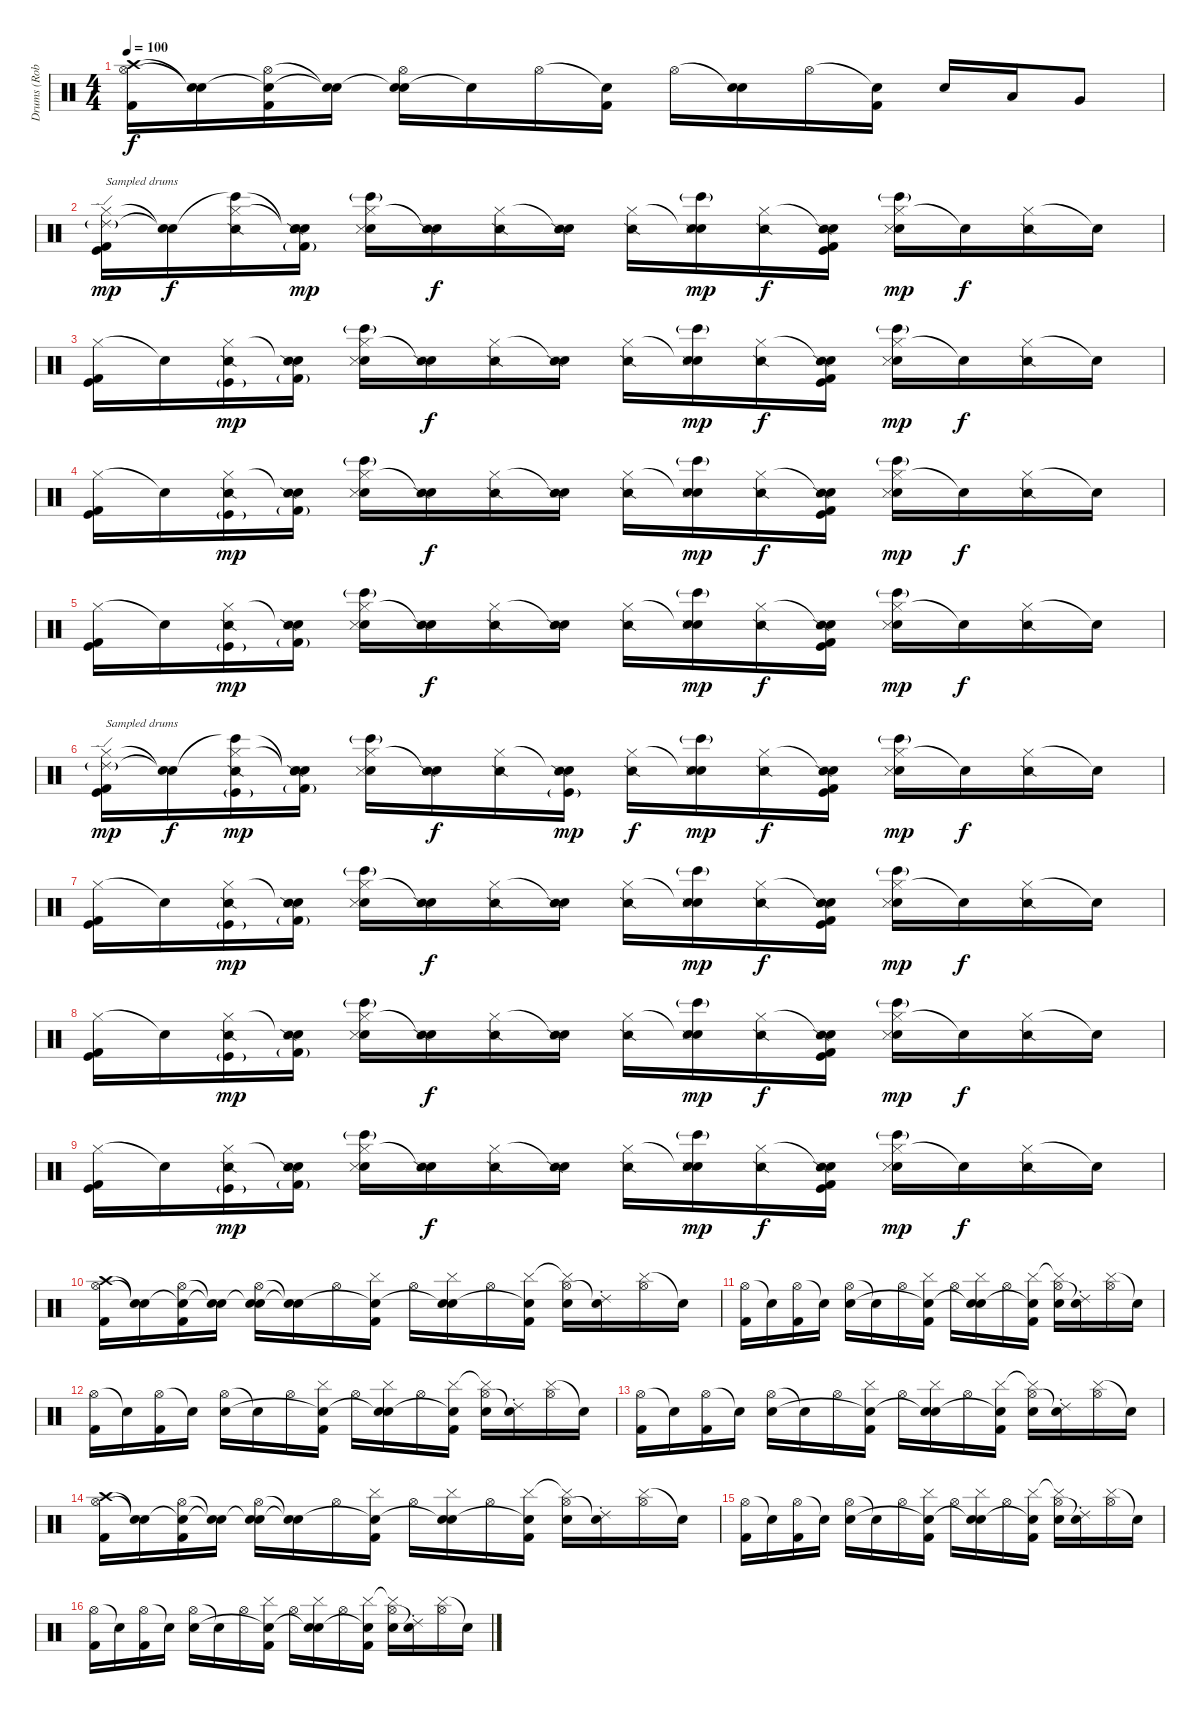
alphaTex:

\track ("Drums (Rob Bourdon)" "Drums (Rob") {instrument percussion}
\staff {score}
\articulation defaults
\ts (4 4)
\tempo 100
\clef neutral
\ks c
("Crash high (hit)" "Hi-Hat (open)" "Kick (hit) 2").16{dy f} ("Snare (hit)"{t} "Snare (hit)"{t}).16 ("Snare (hit)"{t} "Hi-Hat (open)" "Kick (hit) 2").16 ("Snare (hit)"{t} "Snare (hit)"{t}).16 ("Snare (hit)"{t} "Hi-Hat (open)" "Electric Snare (hit)").16 "Snare (hit)"{t}.16 "Hi-Hat (open)".16 ("Snare (hit)"{t} "Kick (hit) 2").16 "Hi-Hat (open)".16 ("Snare (hit)"{t} "Electric Snare (hit)").16 "Hi-Hat (open)".16 ("Snare (hit)"{t} "Kick (hit) 2").16 "Electric Snare (hit)".16 "Low Tom (hit)".16 "Very Low Tom (hit)".8 |
("Ride (edge) 2"{g} "Hi-Hat (closed)" "Kick (hit) 2" "Kick (hit)").16{txt "Sampled drums" dy mp volume 10} ("Snare (hit)"{t} "Snare (hit)"{t}).16{dy f} ("Bongo High (hit)"{t} "Hi-Hat (closed)" "Snare (side stick) 2").16 ("Snare (hit)"{t} "Snare (hit)"{t} "Snare (side stick) 2" "Kick (hit) 2"{g}).16{dy mp} ("Hi-Hat (closed)" "Bongo High (hit)"{g} "Electric Snare (hit)" "Snare (side stick) 3").16 ("Snare (hit)"{t} "Snare (side stick) 2").16{dy f} ("Hi-Hat (closed)" "Snare (side stick) 2").16 ("Snare (hit)"{t} "Snare (side stick) 2").16 ("Hi-Hat (closed)" "Snare (side stick) 2").16 ("Snare (hit)"{t} "Bongo High (hit)"{g} "Electric Snare (hit)" "Snare (side stick) 3").16{dy mp} ("Hi-Hat (closed)" "Snare (side stick) 2").16{dy f} ("Snare (hit)"{t} "Snare (side stick) 2" "Kick (hit) 2" "Kick (hit)").16 ("Hi-Hat (closed)" "Bongo High (hit)"{g} "Electric Snare (hit)" "Snare (side stick) 3").16{dy mp} "Snare (hit)"{t}.16{dy f} ("Hi-Hat (closed)" "Snare (side stick) 2").16 "Snare (hit)"{t}.16 |
("Hi-Hat (closed)" "Kick (hit) 2" "Kick (hit)").16{volume 10} "Snare (hit)"{t}.16 ("Hi-Hat (closed)" "Snare (side stick) 2" "Kick (hit)"{g}).16{dy mp} ("Snare (hit)"{t} "Snare (side stick) 2" "Kick (hit) 2"{g}).16 ("Hi-Hat (closed)" "Bongo High (hit)"{g} "Electric Snare (hit)" "Snare (side stick) 3").16 ("Snare (hit)"{t} "Snare (side stick) 2").16{dy f} ("Hi-Hat (closed)" "Snare (side stick) 2").16 ("Snare (hit)"{t} "Snare (side stick) 2").16 ("Hi-Hat (closed)" "Snare (side stick) 2").16 ("Snare (hit)"{t} "Bongo High (hit)"{g} "Electric Snare (hit)" "Snare (side stick) 3").16{dy mp} ("Hi-Hat (closed)" "Snare (side stick) 2").16{dy f} ("Snare (hit)"{t} "Snare (side stick) 2" "Kick (hit) 2" "Kick (hit)").16 ("Hi-Hat (closed)" "Bongo High (hit)"{g} "Electric Snare (hit)" "Snare (side stick) 3").16{dy mp} "Snare (hit)"{t}.16{dy f} ("Hi-Hat (closed)" "Snare (side stick) 2").16 "Snare (hit)"{t}.16 |
("Hi-Hat (closed)" "Kick (hit) 2" "Kick (hit)").16{volume 10} "Snare (hit)"{t}.16 ("Hi-Hat (closed)" "Snare (side stick) 2" "Kick (hit)"{g}).16{dy mp} ("Snare (hit)"{t} "Snare (side stick) 2" "Kick (hit) 2"{g}).16 ("Hi-Hat (closed)" "Bongo High (hit)"{g} "Electric Snare (hit)" "Snare (side stick) 3").16 ("Snare (hit)"{t} "Snare (side stick) 2").16{dy f} ("Hi-Hat (closed)" "Snare (side stick) 2").16 ("Snare (hit)"{t} "Snare (side stick) 2").16 ("Hi-Hat (closed)" "Snare (side stick) 2").16 ("Snare (hit)"{t} "Bongo High (hit)"{g} "Electric Snare (hit)" "Snare (side stick) 3").16{dy mp} ("Hi-Hat (closed)" "Snare (side stick) 2").16{dy f} ("Snare (hit)"{t} "Snare (side stick) 2" "Kick (hit) 2" "Kick (hit)").16 ("Hi-Hat (closed)" "Bongo High (hit)"{g} "Electric Snare (hit)" "Snare (side stick) 3").16{dy mp} "Snare (hit)"{t}.16{dy f} ("Hi-Hat (closed)" "Snare (side stick) 2").16 "Snare (hit)"{t}.16 |
("Hi-Hat (closed)" "Kick (hit) 2" "Kick (hit)").16{volume 10} "Snare (hit)"{t}.16 ("Hi-Hat (closed)" "Snare (side stick) 2" "Kick (hit)"{g}).16{dy mp} ("Snare (hit)"{t} "Snare (side stick) 2" "Kick (hit) 2"{g}).16 ("Hi-Hat (closed)" "Bongo High (hit)"{g} "Electric Snare (hit)" "Snare (side stick) 3").16 ("Snare (hit)"{t} "Snare (side stick) 2").16{dy f} ("Hi-Hat (closed)" "Snare (side stick) 2").16 ("Snare (hit)"{t} "Snare (side stick) 2").16 ("Hi-Hat (closed)" "Snare (side stick) 2").16 ("Snare (hit)"{t} "Bongo High (hit)"{g} "Electric Snare (hit)" "Snare (side stick) 3").16{dy mp} ("Hi-Hat (closed)" "Snare (side stick) 2").16{dy f} ("Snare (hit)"{t} "Snare (side stick) 2" "Kick (hit) 2" "Kick (hit)").16 ("Hi-Hat (closed)" "Bongo High (hit)"{g} "Electric Snare (hit)" "Snare (side stick) 3").16{dy mp} "Snare (hit)"{t}.16{dy f} ("Hi-Hat (closed)" "Snare (side stick) 2").16 "Snare (hit)"{t}.16 |
("Ride (edge) 2"{g} "Hi-Hat (closed)" "Kick (hit) 2" "Kick (hit)").16{txt "Sampled drums" dy mp volume 10} ("Snare (hit)"{t} "Snare (hit)"{t}).16{dy f} ("Bongo High (hit)"{t} "Hi-Hat (closed)" "Snare (side stick) 2" "Kick (hit)"{g}).16{dy mp} ("Snare (hit)"{t} "Snare (hit)"{t} "Snare (side stick) 2" "Kick (hit) 2"{g}).16 ("Hi-Hat (closed)" "Bongo High (hit)"{g} "Electric Snare (hit)" "Snare (side stick) 3").16 ("Snare (hit)"{t} "Snare (side stick) 2").16{dy f} ("Hi-Hat (closed)" "Snare (side stick) 2").16 ("Snare (hit)"{t} "Snare (side stick) 2" "Kick (hit)"{g}).16{dy mp} ("Hi-Hat (closed)" "Snare (side stick) 2").16{dy f} ("Snare (hit)"{t} "Bongo High (hit)"{g} "Electric Snare (hit)" "Snare (side stick) 3").16{dy mp} ("Hi-Hat (closed)" "Snare (side stick) 2").16{dy f} ("Snare (hit)"{t} "Snare (side stick) 2" "Kick (hit) 2" "Kick (hit)").16 ("Hi-Hat (closed)" "Bongo High (hit)"{g} "Electric Snare (hit)" "Snare (side stick) 3").16{dy mp} "Snare (hit)"{t}.16{dy f} ("Hi-Hat (closed)" "Snare (side stick) 2").16 "Snare (hit)"{t}.16 |
("Hi-Hat (closed)" "Kick (hit) 2" "Kick (hit)").16{volume 10} "Snare (hit)"{t}.16 ("Hi-Hat (closed)" "Snare (side stick) 2" "Kick (hit)"{g}).16{dy mp} ("Snare (hit)"{t} "Snare (side stick) 2" "Kick (hit) 2"{g}).16 ("Hi-Hat (closed)" "Bongo High (hit)"{g} "Electric Snare (hit)" "Snare (side stick) 3").16 ("Snare (hit)"{t} "Snare (side stick) 2").16{dy f} ("Hi-Hat (closed)" "Snare (side stick) 2").16 ("Snare (hit)"{t} "Snare (side stick) 2").16 ("Hi-Hat (closed)" "Snare (side stick) 2").16 ("Snare (hit)"{t} "Bongo High (hit)"{g} "Electric Snare (hit)" "Snare (side stick) 3").16{dy mp} ("Hi-Hat (closed)" "Snare (side stick) 2").16{dy f} ("Snare (hit)"{t} "Snare (side stick) 2" "Kick (hit) 2" "Kick (hit)").16 ("Hi-Hat (closed)" "Bongo High (hit)"{g} "Electric Snare (hit)" "Snare (side stick) 3").16{dy mp} "Snare (hit)"{t}.16{dy f} ("Hi-Hat (closed)" "Snare (side stick) 2").16 "Snare (hit)"{t}.16 |
("Hi-Hat (closed)" "Kick (hit) 2" "Kick (hit)").16{volume 10} "Snare (hit)"{t}.16 ("Hi-Hat (closed)" "Snare (side stick) 2" "Kick (hit)"{g}).16{dy mp} ("Snare (hit)"{t} "Snare (side stick) 2" "Kick (hit) 2"{g}).16 ("Hi-Hat (closed)" "Bongo High (hit)"{g} "Electric Snare (hit)" "Snare (side stick) 3").16 ("Snare (hit)"{t} "Snare (side stick) 2").16{dy f} ("Hi-Hat (closed)" "Snare (side stick) 2").16 ("Snare (hit)"{t} "Snare (side stick) 2").16 ("Hi-Hat (closed)" "Snare (side stick) 2").16 ("Snare (hit)"{t} "Bongo High (hit)"{g} "Electric Snare (hit)" "Snare (side stick) 3").16{dy mp} ("Hi-Hat (closed)" "Snare (side stick) 2").16{dy f} ("Snare (hit)"{t} "Snare (side stick) 2" "Kick (hit) 2" "Kick (hit)").16 ("Hi-Hat (closed)" "Bongo High (hit)"{g} "Electric Snare (hit)" "Snare (side stick) 3").16{dy mp} "Snare (hit)"{t}.16{dy f} ("Hi-Hat (closed)" "Snare (side stick) 2").16 "Snare (hit)"{t}.16 |
("Hi-Hat (closed)" "Kick (hit) 2" "Kick (hit)").16{volume 10} "Snare (hit)"{t}.16 ("Hi-Hat (closed)" "Snare (side stick) 2" "Kick (hit)"{g}).16{dy mp} ("Snare (hit)"{t} "Snare (side stick) 2" "Kick (hit) 2"{g}).16 ("Hi-Hat (closed)" "Bongo High (hit)"{g} "Electric Snare (hit)" "Snare (side stick) 3").16 ("Snare (hit)"{t} "Snare (side stick) 2").16{dy f} ("Hi-Hat (closed)" "Snare (side stick) 2").16 ("Snare (hit)"{t} "Snare (side stick) 2").16 ("Hi-Hat (closed)" "Snare (side stick) 2").16 ("Snare (hit)"{t} "Bongo High (hit)"{g} "Electric Snare (hit)" "Snare (side stick) 3").16{dy mp} ("Hi-Hat (closed)" "Snare (side stick) 2").16{dy f} ("Snare (hit)"{t} "Snare (side stick) 2" "Kick (hit) 2" "Kick (hit)").16 ("Hi-Hat (closed)" "Bongo High (hit)"{g} "Electric Snare (hit)" "Snare (side stick) 3").16{dy mp} "Snare (hit)"{t}.16{dy f} ("Hi-Hat (closed)" "Snare (side stick) 2").16 "Snare (hit)"{t}.16 |
("Crash high (hit)" "Hi-Hat (open)" "Kick (hit) 2").16{volume 14} ("Snare (hit)"{t} "Snare (hit)"{t}).16 ("Snare (hit)"{t} "Hi-Hat (open)" "Kick (hit) 2").16 ("Snare (hit)"{t} "Snare (hit)"{t}).16 ("Snare (hit)"{t} "Hi-Hat (open)" "Electric Snare (hit)").16 ("Snare (hit)"{t} "Snare (hit)"{t}).16 "Hi-Hat (open)".16 ("Cymbal (hit)" "Snare (hit)"{t} "Kick (hit) 2").16 "Hi-Hat (open)".16 ("Cymbal (hit)" "Snare (hit)"{t} "Electric Snare (hit)").16 "Hi-Hat (open)".16 ("Cymbal (hit)" "Snare (hit)"{t} "Kick (hit) 2").16 ("Cymbal (hit)"{t} "Hi-Hat (open)" "Electric Snare (hit)").16 ("Ride (choke) 2" "Snare (hit)"{t}).16 ("Cymbal (hit)" "Hi-Hat (open)").16 "Snare (hit)"{t}.16 |
("Hi-Hat (open)" "Kick (hit) 2").16 "Snare (hit)"{t}.16 ("Hi-Hat (open)" "Kick (hit) 2").16 "Snare (hit)"{t}.16 ("Hi-Hat (open)" "Electric Snare (hit)").16 "Snare (hit)"{t}.16 "Hi-Hat (open)".16 ("Cymbal (hit)" "Snare (hit)"{t} "Kick (hit) 2").16 "Hi-Hat (open)".16 ("Cymbal (hit)" "Snare (hit)"{t} "Electric Snare (hit)").16 "Hi-Hat (open)".16 ("Cymbal (hit)" "Snare (hit)"{t} "Kick (hit) 2").16 ("Cymbal (hit)"{t} "Hi-Hat (open)" "Electric Snare (hit)").16 ("Ride (choke) 2" "Snare (hit)"{t}).16 ("Cymbal (hit)" "Hi-Hat (open)").16 "Snare (hit)"{t}.16 |
("Hi-Hat (open)" "Kick (hit) 2").16{volume 14} "Snare (hit)"{t}.16 ("Hi-Hat (open)" "Kick (hit) 2").16 "Snare (hit)"{t}.16 ("Hi-Hat (open)" "Electric Snare (hit)").16 "Snare (hit)"{t}.16 "Hi-Hat (open)".16 ("Cymbal (hit)" "Snare (hit)"{t} "Kick (hit) 2").16 "Hi-Hat (open)".16 ("Cymbal (hit)" "Snare (hit)"{t} "Electric Snare (hit)").16 "Hi-Hat (open)".16 ("Cymbal (hit)" "Snare (hit)"{t} "Kick (hit) 2").16 ("Cymbal (hit)"{t} "Hi-Hat (open)" "Electric Snare (hit)").16 ("Ride (choke) 2" "Snare (hit)"{t}).16 ("Cymbal (hit)" "Hi-Hat (open)").16 "Snare (hit)"{t}.16 |
("Hi-Hat (open)" "Kick (hit) 2").16 "Snare (hit)"{t}.16 ("Hi-Hat (open)" "Kick (hit) 2").16 "Snare (hit)"{t}.16 ("Hi-Hat (open)" "Electric Snare (hit)").16 "Snare (hit)"{t}.16 "Hi-Hat (open)".16 ("Cymbal (hit)" "Snare (hit)"{t} "Kick (hit) 2").16 "Hi-Hat (open)".16 ("Cymbal (hit)" "Snare (hit)"{t} "Electric Snare (hit)").16 "Hi-Hat (open)".16 ("Cymbal (hit)" "Snare (hit)"{t} "Kick (hit) 2").16 ("Cymbal (hit)"{t} "Hi-Hat (open)" "Electric Snare (hit)").16 ("Ride (choke) 2" "Snare (hit)"{t}).16 ("Cymbal (hit)" "Hi-Hat (open)").16 "Snare (hit)"{t}.16 |
("Crash high (hit)" "Hi-Hat (open)" "Kick (hit) 2").16{volume 14} ("Snare (hit)"{t} "Snare (hit)"{t}).16 ("Snare (hit)"{t} "Hi-Hat (open)" "Kick (hit) 2").16 ("Snare (hit)"{t} "Snare (hit)"{t}).16 ("Snare (hit)"{t} "Hi-Hat (open)" "Electric Snare (hit)").16 ("Snare (hit)"{t} "Snare (hit)"{t}).16 "Hi-Hat (open)".16 ("Cymbal (hit)" "Snare (hit)"{t} "Kick (hit) 2").16 "Hi-Hat (open)".16 ("Cymbal (hit)" "Snare (hit)"{t} "Electric Snare (hit)").16 "Hi-Hat (open)".16 ("Cymbal (hit)" "Snare (hit)"{t} "Kick (hit) 2").16 ("Cymbal (hit)"{t} "Hi-Hat (open)" "Electric Snare (hit)").16 ("Ride (choke) 2" "Snare (hit)"{t}).16 ("Cymbal (hit)" "Hi-Hat (open)").16 "Snare (hit)"{t}.16 |
("Hi-Hat (open)" "Kick (hit) 2").16 "Snare (hit)"{t}.16 ("Hi-Hat (open)" "Kick (hit) 2").16 "Snare (hit)"{t}.16 ("Hi-Hat (open)" "Electric Snare (hit)").16 "Snare (hit)"{t}.16 "Hi-Hat (open)".16 ("Cymbal (hit)" "Snare (hit)"{t} "Kick (hit) 2").16 "Hi-Hat (open)".16 ("Cymbal (hit)" "Snare (hit)"{t} "Electric Snare (hit)").16 "Hi-Hat (open)".16 ("Cymbal (hit)" "Snare (hit)"{t} "Kick (hit) 2").16 ("Cymbal (hit)"{t} "Hi-Hat (open)" "Electric Snare (hit)").16 ("Ride (choke) 2" "Snare (hit)"{t}).16 ("Cymbal (hit)" "Hi-Hat (open)").16 "Snare (hit)"{t}.16 |
("Hi-Hat (open)" "Kick (hit) 2").16{volume 14} "Snare (hit)"{t}.16 ("Hi-Hat (open)" "Kick (hit) 2").16 "Snare (hit)"{t}.16 ("Hi-Hat (open)" "Electric Snare (hit)").16 "Snare (hit)"{t}.16 "Hi-Hat (open)".16 ("Cymbal (hit)" "Snare (hit)"{t} "Kick (hit) 2").16 "Hi-Hat (open)".16 ("Cymbal (hit)" "Snare (hit)"{t} "Electric Snare (hit)").16 "Hi-Hat (open)".16 ("Cymbal (hit)" "Snare (hit)"{t} "Kick (hit) 2").16 ("Cymbal (hit)"{t} "Hi-Hat (open)" "Electric Snare (hit)").16 ("Ride (choke) 2" "Snare (hit)"{t}).16 ("Cymbal (hit)" "Hi-Hat (open)").16 "Snare (hit)"{t}.16
